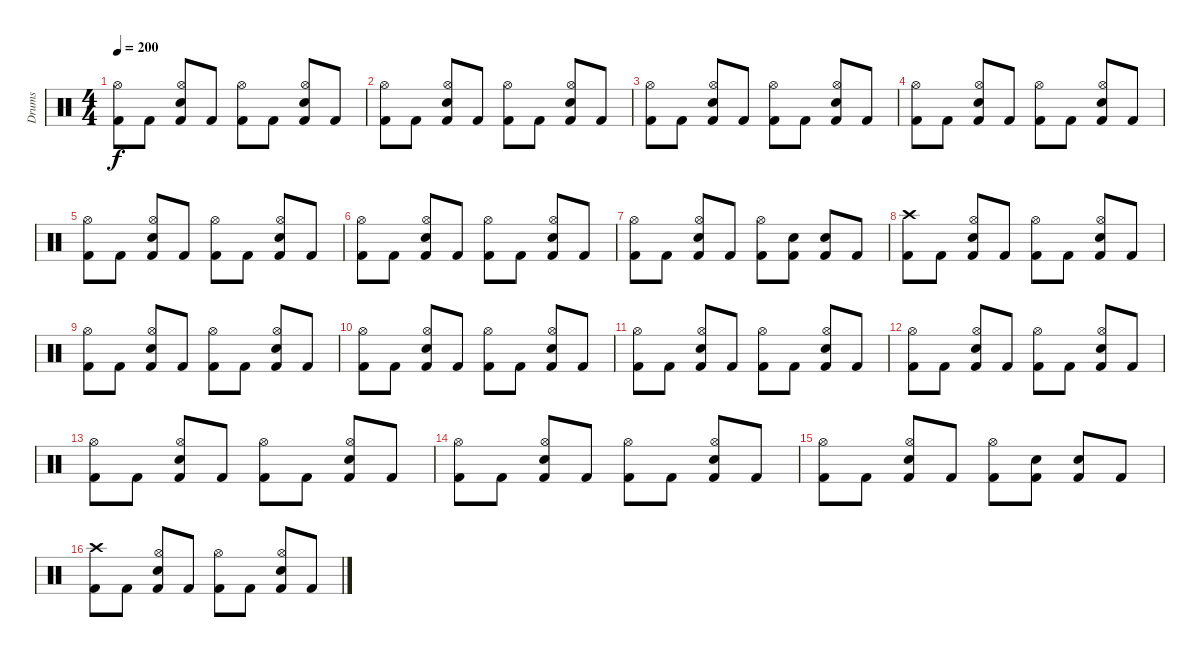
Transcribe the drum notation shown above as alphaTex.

\track ("Drums" "Drums") {instrument percussion}
\staff {score}
\articulation defaults
\ts (4 4)
\tempo 200
\clef neutral
\ks c
("Kick (hit) 2" "Hi-Hat (open)").8{dy f} "Kick (hit) 2".8 ("Kick (hit) 2" "Snare (hit) 2" "Hi-Hat (open)").8 "Kick (hit) 2".8 ("Kick (hit) 2" "Hi-Hat (open)").8 "Kick (hit) 2".8 ("Kick (hit) 2" "Snare (hit) 2" "Hi-Hat (open)").8 "Kick (hit) 2".8 |
("Kick (hit) 2" "Hi-Hat (open)").8 "Kick (hit) 2".8 ("Kick (hit) 2" "Snare (hit) 2" "Hi-Hat (open)").8 "Kick (hit) 2".8 ("Kick (hit) 2" "Hi-Hat (open)").8 "Kick (hit) 2".8 ("Kick (hit) 2" "Snare (hit) 2" "Hi-Hat (open)").8 "Kick (hit) 2".8 |
("Kick (hit) 2" "Hi-Hat (open)").8 "Kick (hit) 2".8 ("Kick (hit) 2" "Snare (hit) 2" "Hi-Hat (open)").8 "Kick (hit) 2".8 ("Kick (hit) 2" "Hi-Hat (open)").8 "Kick (hit) 2".8 ("Kick (hit) 2" "Snare (hit) 2" "Hi-Hat (open)").8 "Kick (hit) 2".8 |
("Kick (hit) 2" "Hi-Hat (open)").8 "Kick (hit) 2".8 ("Kick (hit) 2" "Snare (hit) 2" "Hi-Hat (open)").8 "Kick (hit) 2".8 ("Kick (hit) 2" "Hi-Hat (open)").8 "Kick (hit) 2".8 ("Kick (hit) 2" "Snare (hit) 2" "Hi-Hat (open)").8 "Kick (hit) 2".8 |
("Kick (hit) 2" "Hi-Hat (open)").8 "Kick (hit) 2".8 ("Kick (hit) 2" "Snare (hit) 2" "Hi-Hat (open)").8 "Kick (hit) 2".8 ("Kick (hit) 2" "Hi-Hat (open)").8 "Kick (hit) 2".8 ("Kick (hit) 2" "Snare (hit) 2" "Hi-Hat (open)").8 "Kick (hit) 2".8 |
("Kick (hit) 2" "Hi-Hat (open)").8 "Kick (hit) 2".8 ("Kick (hit) 2" "Snare (hit) 2" "Hi-Hat (open)").8 "Kick (hit) 2".8 ("Kick (hit) 2" "Hi-Hat (open)").8 "Kick (hit) 2".8 ("Kick (hit) 2" "Snare (hit) 2" "Hi-Hat (open)").8 "Kick (hit) 2".8 |
("Kick (hit) 2" "Hi-Hat (open)").8 "Kick (hit) 2".8 ("Kick (hit) 2" "Snare (hit) 2" "Hi-Hat (open)").8 "Kick (hit) 2".8 ("Kick (hit) 2" "Hi-Hat (open)").8 ("Kick (hit) 2" "Snare (hit) 2").8 ("Kick (hit) 2" "Snare (hit) 2").8 "Kick (hit) 2".8 |
("Kick (hit) 2" "Crash high (hit)").8{volume 15} "Kick (hit) 2".8 ("Kick (hit) 2" "Snare (hit) 2" "Hi-Hat (open)").8 "Kick (hit) 2".8 ("Kick (hit) 2" "Hi-Hat (open)").8 "Kick (hit) 2".8 ("Kick (hit) 2" "Snare (hit) 2" "Hi-Hat (open)").8 "Kick (hit) 2".8 |
("Kick (hit) 2" "Hi-Hat (open)").8{volume 14} "Kick (hit) 2".8 ("Kick (hit) 2" "Snare (hit) 2" "Hi-Hat (open)").8 "Kick (hit) 2".8 ("Kick (hit) 2" "Hi-Hat (open)").8 "Kick (hit) 2".8 ("Kick (hit) 2" "Snare (hit) 2" "Hi-Hat (open)").8 "Kick (hit) 2".8 |
("Kick (hit) 2" "Hi-Hat (open)").8{volume 13} "Kick (hit) 2".8 ("Kick (hit) 2" "Snare (hit) 2" "Hi-Hat (open)").8 "Kick (hit) 2".8 ("Kick (hit) 2" "Hi-Hat (open)").8 "Kick (hit) 2".8 ("Kick (hit) 2" "Snare (hit) 2" "Hi-Hat (open)").8 "Kick (hit) 2".8 |
("Kick (hit) 2" "Hi-Hat (open)").8{volume 12} "Kick (hit) 2".8 ("Kick (hit) 2" "Snare (hit) 2" "Hi-Hat (open)").8 "Kick (hit) 2".8 ("Kick (hit) 2" "Hi-Hat (open)").8 "Kick (hit) 2".8 ("Kick (hit) 2" "Snare (hit) 2" "Hi-Hat (open)").8 "Kick (hit) 2".8 |
("Kick (hit) 2" "Hi-Hat (open)").8{volume 11} "Kick (hit) 2".8 ("Kick (hit) 2" "Snare (hit) 2" "Hi-Hat (open)").8 "Kick (hit) 2".8 ("Kick (hit) 2" "Hi-Hat (open)").8 "Kick (hit) 2".8 ("Kick (hit) 2" "Snare (hit) 2" "Hi-Hat (open)").8 "Kick (hit) 2".8 |
("Kick (hit) 2" "Hi-Hat (open)").8{volume 10} "Kick (hit) 2".8 ("Kick (hit) 2" "Snare (hit) 2" "Hi-Hat (open)").8 "Kick (hit) 2".8 ("Kick (hit) 2" "Hi-Hat (open)").8 "Kick (hit) 2".8 ("Kick (hit) 2" "Snare (hit) 2" "Hi-Hat (open)").8 "Kick (hit) 2".8 |
("Kick (hit) 2" "Hi-Hat (open)").8{volume 9} "Kick (hit) 2".8 ("Kick (hit) 2" "Snare (hit) 2" "Hi-Hat (open)").8 "Kick (hit) 2".8 ("Kick (hit) 2" "Hi-Hat (open)").8 "Kick (hit) 2".8 ("Kick (hit) 2" "Snare (hit) 2" "Hi-Hat (open)").8 "Kick (hit) 2".8 |
("Kick (hit) 2" "Hi-Hat (open)").8{volume 8} "Kick (hit) 2".8 ("Kick (hit) 2" "Snare (hit) 2" "Hi-Hat (open)").8 "Kick (hit) 2".8 ("Kick (hit) 2" "Hi-Hat (open)").8 ("Kick (hit) 2" "Snare (hit) 2").8 ("Kick (hit) 2" "Snare (hit) 2").8 "Kick (hit) 2".8 |
("Kick (hit) 2" "Crash high (hit)").8{volume 7} "Kick (hit) 2".8 ("Kick (hit) 2" "Snare (hit) 2" "Hi-Hat (open)").8 "Kick (hit) 2".8 ("Kick (hit) 2" "Hi-Hat (open)").8 "Kick (hit) 2".8 ("Kick (hit) 2" "Snare (hit) 2" "Hi-Hat (open)").8 "Kick (hit) 2".8
